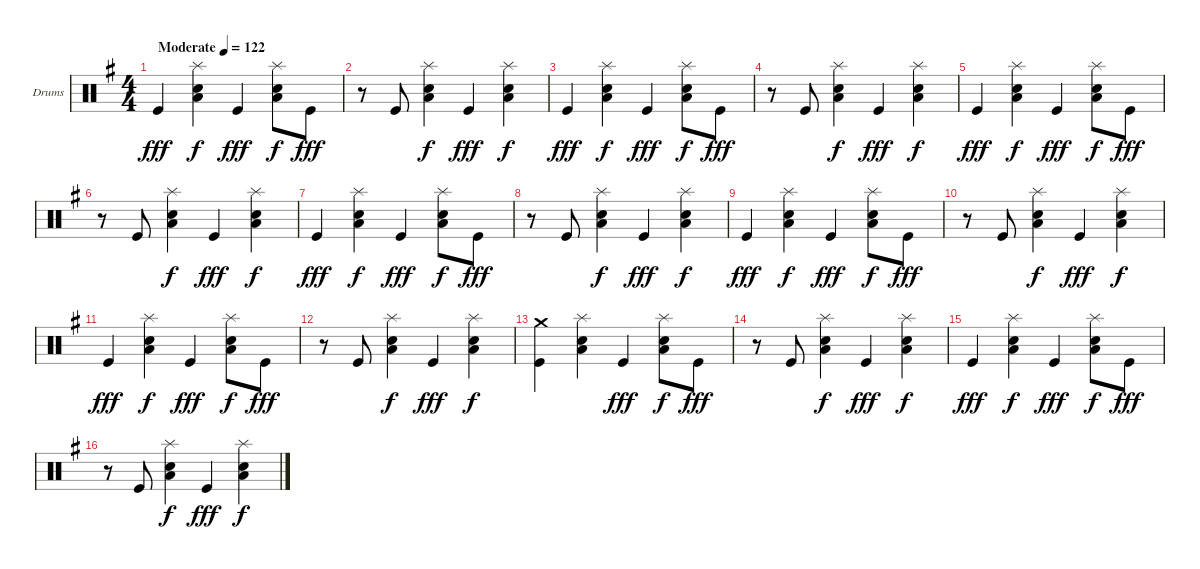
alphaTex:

\bracketExtendMode groupsimilarinstruments
\firstSystemTrackNameOrientation horizontal
\otherSystemsTrackNameOrientation horizontal
\track ("Drumkit" "Drums") {instrument percussion}
\staff {score}
\articulation defaults
\ts (4 4)
\beaming (8 2 2 2 2)
\tempo (122 "Moderate")
\clef neutral
\ks g "Kick (hit)".4{dy fff}
("Splash (hit)" "Low Tom (hit)" "Snare (hit) 2").4{dy f} "Kick (hit)".4{dy fff} ("Splash (hit)" "Low Tom (hit)" "Snare (hit) 2").8{dy f} "Kick (hit)".8{dy fff} |
r.8 "Kick (hit)".8 ("Splash (hit)" "Low Tom (hit)" "Snare (hit) 2").4{dy f} "Kick (hit)".4{dy fff} ("Splash (hit)" "Low Tom (hit)" "Snare (hit) 2").4{dy f} |
"Kick (hit)".4{dy fff} ("Splash (hit)" "Low Tom (hit)" "Snare (hit) 2").4{dy f} "Kick (hit)".4{dy fff} ("Splash (hit)" "Low Tom (hit)" "Snare (hit) 2").8{dy f} "Kick (hit)".8{dy fff} |
r.8 "Kick (hit)".8 ("Splash (hit)" "Low Tom (hit)" "Snare (hit) 2").4{dy f} "Kick (hit)".4{dy fff} ("Splash (hit)" "Low Tom (hit)" "Snare (hit) 2").4{dy f} |
"Kick (hit)".4{dy fff} ("Splash (hit)" "Low Tom (hit)" "Snare (hit) 2").4{dy f} "Kick (hit)".4{dy fff} ("Splash (hit)" "Low Tom (hit)" "Snare (hit) 2").8{dy f} "Kick (hit)".8{dy fff} |
r.8 "Kick (hit)".8 ("Splash (hit)" "Low Tom (hit)" "Snare (hit) 2").4{dy f} "Kick (hit)".4{dy fff} ("Splash (hit)" "Low Tom (hit)" "Snare (hit) 2").4{dy f} |
"Kick (hit)".4{dy fff} ("Splash (hit)" "Low Tom (hit)" "Snare (hit) 2").4{dy f} "Kick (hit)".4{dy fff} ("Splash (hit)" "Low Tom (hit)" "Snare (hit) 2").8{dy f} "Kick (hit)".8{dy fff} |
r.8 "Kick (hit)".8 ("Splash (hit)" "Low Tom (hit)" "Snare (hit) 2").4{dy f} "Kick (hit)".4{dy fff} ("Splash (hit)" "Low Tom (hit)" "Snare (hit) 2").4{dy f} |
"Kick (hit)".4{dy fff} ("Splash (hit)" "Low Tom (hit)" "Snare (hit) 2").4{dy f} "Kick (hit)".4{dy fff} ("Splash (hit)" "Low Tom (hit)" "Snare (hit) 2").8{dy f} "Kick (hit)".8{dy fff} |
r.8 "Kick (hit)".8 ("Splash (hit)" "Low Tom (hit)" "Snare (hit) 2").4{dy f} "Kick (hit)".4{dy fff} ("Splash (hit)" "Low Tom (hit)" "Snare (hit) 2").4{dy f} |
"Kick (hit)".4{dy fff} ("Splash (hit)" "Low Tom (hit)" "Snare (hit) 2").4{dy f} "Kick (hit)".4{dy fff} ("Splash (hit)" "Low Tom (hit)" "Snare (hit) 2").8{dy f} "Kick (hit)".8{dy fff} |
r.8 "Kick (hit)".8 ("Splash (hit)" "Low Tom (hit)" "Snare (hit) 2").4{dy f} "Kick (hit)".4{dy fff} ("Splash (hit)" "Low Tom (hit)" "Snare (hit) 2").4{dy f} |
("Crash medium (hit)" "Kick (hit)").4 ("Splash (hit)" "Low Tom (hit)" "Snare (hit) 2").4 "Kick (hit)".4{dy fff} ("Splash (hit)" "Low Tom (hit)" "Snare (hit) 2").8{dy f} "Kick (hit)".8{dy fff} |
r.8 "Kick (hit)".8 ("Splash (hit)" "Low Tom (hit)" "Snare (hit) 2").4{dy f} "Kick (hit)".4{dy fff} ("Splash (hit)" "Low Tom (hit)" "Snare (hit) 2").4{dy f} |
"Kick (hit)".4{dy fff} ("Splash (hit)" "Low Tom (hit)" "Snare (hit) 2").4{dy f} "Kick (hit)".4{dy fff} ("Splash (hit)" "Low Tom (hit)" "Snare (hit) 2").8{dy f} "Kick (hit)".8{dy fff} |
r.8 "Kick (hit)".8 ("Splash (hit)" "Low Tom (hit)" "Snare (hit) 2").4{dy f} "Kick (hit)".4{dy fff} ("Splash (hit)" "Low Tom (hit)" "Snare (hit) 2").4{dy f}
